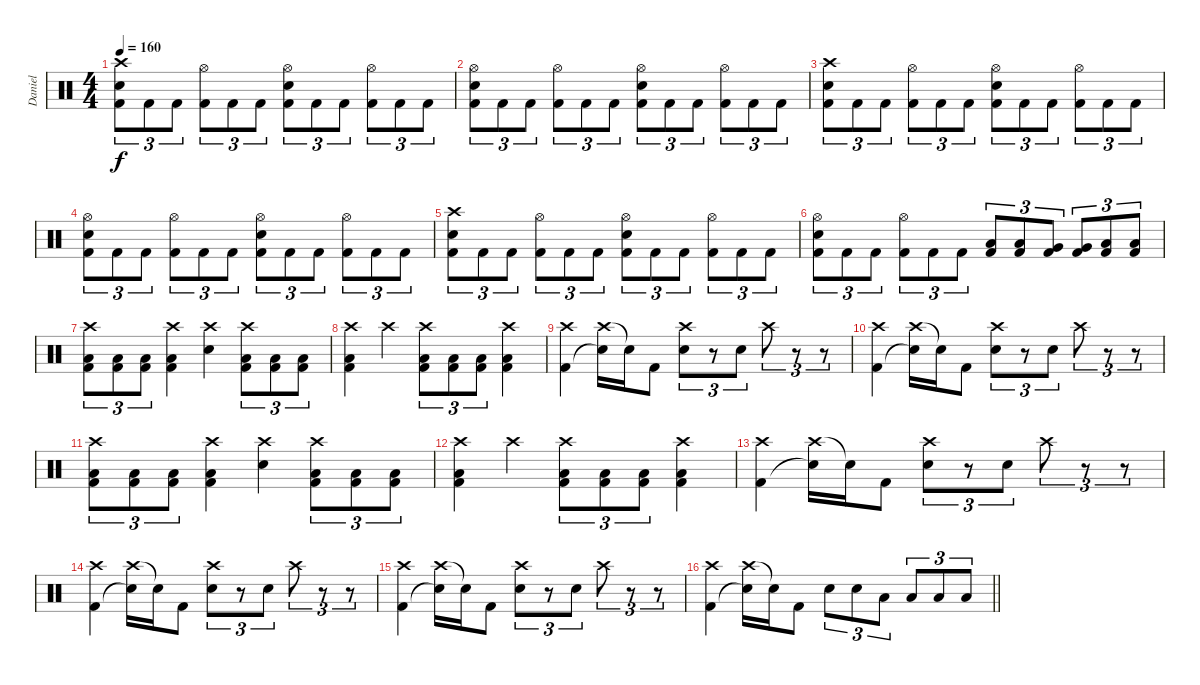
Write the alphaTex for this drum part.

\track ("Daniel" "Daniel") {instrument percussion}
\staff {score}
\articulation defaults
\ts (4 4)
\tempo 160
\clef neutral
\ks c
("Crash high (hit)" "Electric Snare (hit)" "Kick (hit) 2").8{tu (3 2) dy f} "Kick (hit) 2".8{tu (3 2)} "Kick (hit) 2".8{tu (3 2)} ("Hi-Hat (open)" "Kick (hit) 2").8{tu (3 2)} "Kick (hit) 2".8{tu (3 2)} "Kick (hit) 2".8{tu (3 2)} ("Hi-Hat (open)" "Electric Snare (hit)" "Kick (hit) 2").8{tu (3 2)} "Kick (hit) 2".8{tu (3 2)} "Kick (hit) 2".8{tu (3 2)} ("Hi-Hat (open)" "Kick (hit) 2").8{tu (3 2)} "Kick (hit) 2".8{tu (3 2)} "Kick (hit) 2".8{tu (3 2)} |
("Hi-Hat (open)" "Electric Snare (hit)" "Kick (hit) 2").8{tu (3 2)} "Kick (hit) 2".8{tu (3 2)} "Kick (hit) 2".8{tu (3 2)} ("Hi-Hat (open)" "Kick (hit) 2").8{tu (3 2)} "Kick (hit) 2".8{tu (3 2)} "Kick (hit) 2".8{tu (3 2)} ("Hi-Hat (open)" "Electric Snare (hit)" "Kick (hit) 2").8{tu (3 2)} "Kick (hit) 2".8{tu (3 2)} "Kick (hit) 2".8{tu (3 2)} ("Hi-Hat (open)" "Kick (hit) 2").8{tu (3 2)} "Kick (hit) 2".8{tu (3 2)} "Kick (hit) 2".8{tu (3 2)} |
("Crash high (hit)" "Electric Snare (hit)" "Kick (hit) 2").8{tu (3 2)} "Kick (hit) 2".8{tu (3 2)} "Kick (hit) 2".8{tu (3 2)} ("Hi-Hat (open)" "Kick (hit) 2").8{tu (3 2)} "Kick (hit) 2".8{tu (3 2)} "Kick (hit) 2".8{tu (3 2)} ("Hi-Hat (open)" "Electric Snare (hit)" "Kick (hit) 2").8{tu (3 2)} "Kick (hit) 2".8{tu (3 2)} "Kick (hit) 2".8{tu (3 2)} ("Hi-Hat (open)" "Kick (hit) 2").8{tu (3 2)} "Kick (hit) 2".8{tu (3 2)} "Kick (hit) 2".8{tu (3 2)} |
("Hi-Hat (open)" "Electric Snare (hit)" "Kick (hit) 2").8{tu (3 2)} "Kick (hit) 2".8{tu (3 2)} "Kick (hit) 2".8{tu (3 2)} ("Hi-Hat (open)" "Kick (hit) 2").8{tu (3 2)} "Kick (hit) 2".8{tu (3 2)} "Kick (hit) 2".8{tu (3 2)} ("Hi-Hat (open)" "Electric Snare (hit)" "Kick (hit) 2").8{tu (3 2)} "Kick (hit) 2".8{tu (3 2)} "Kick (hit) 2".8{tu (3 2)} ("Hi-Hat (open)" "Kick (hit) 2").8{tu (3 2)} "Kick (hit) 2".8{tu (3 2)} "Kick (hit) 2".8{tu (3 2)} |
("Crash high (hit)" "Electric Snare (hit)" "Kick (hit) 2").8{tu (3 2)} "Kick (hit) 2".8{tu (3 2)} "Kick (hit) 2".8{tu (3 2)} ("Hi-Hat (open)" "Kick (hit) 2").8{tu (3 2)} "Kick (hit) 2".8{tu (3 2)} "Kick (hit) 2".8{tu (3 2)} ("Hi-Hat (open)" "Electric Snare (hit)" "Kick (hit) 2").8{tu (3 2)} "Kick (hit) 2".8{tu (3 2)} "Kick (hit) 2".8{tu (3 2)} ("Hi-Hat (open)" "Kick (hit) 2").8{tu (3 2)} "Kick (hit) 2".8{tu (3 2)} "Kick (hit) 2".8{tu (3 2)} |
("Hi-Hat (open)" "Electric Snare (hit)" "Kick (hit) 2").8{tu (3 2)} "Kick (hit) 2".8{tu (3 2)} "Kick (hit) 2".8{tu (3 2)} ("Hi-Hat (open)" "Kick (hit) 2").8{tu (3 2)} "Kick (hit) 2".8{tu (3 2)} "Kick (hit) 2".8{tu (3 2)} ("Low Tom (hit)" "Kick (hit) 2").8{tu (3 2)} ("Low Tom (hit)" "Kick (hit) 2").8{tu (3 2)} ("Very Low Tom (hit)" "Kick (hit) 2").8{tu (3 2)} ("Very Low Tom (hit)" "Kick (hit) 2").8{tu (3 2)} ("Low Floor Tom (hit)" "Kick (hit) 2").8{tu (3 2)} ("Low Floor Tom (hit)" "Kick (hit) 2").8{tu (3 2)} |
("Crash high (hit)" "Low Floor Tom (hit)" "Kick (hit) 2").8{tu (3 2)} ("Low Floor Tom (hit)" "Kick (hit) 2").8{tu (3 2)} ("Low Floor Tom (hit)" "Kick (hit) 2").8{tu (3 2)} ("Crash high (hit)" "Low Floor Tom (hit)" "Kick (hit) 2").4 ("Crash high (hit)" "Electric Snare (hit)").4 ("Crash high (hit)" "Low Floor Tom (hit)" "Kick (hit) 2").8{tu (3 2)} ("Low Floor Tom (hit)" "Kick (hit) 2").8{tu (3 2)} ("Low Floor Tom (hit)" "Kick (hit) 2").8{tu (3 2)} |
("Crash high (hit)" "Low Floor Tom (hit)" "Kick (hit) 2").4 "Crash high (hit)".4 ("Crash high (hit)" "Low Floor Tom (hit)" "Kick (hit) 2").8{tu (3 2)} ("Low Floor Tom (hit)" "Kick (hit) 2").8{tu (3 2)} ("Low Floor Tom (hit)" "Kick (hit) 2").8{tu (3 2)} ("Crash high (hit)" "Low Floor Tom (hit)" "Kick (hit) 2").4 |
("Crash high (hit)" "Kick (hit) 2").4 ("Crash high (hit)" "Snare (hit)"{t}).16 "Snare (hit)"{t}.16 "Kick (hit) 2".8 ("Crash high (hit)" "Electric Snare (hit)").8{tu (3 2)} r.8{tu (3 2)} "Electric Snare (hit)".8{tu (3 2)} "Crash high (hit)".8{tu (3 2)} r.8{tu (3 2)} r.8{tu (3 2)} |
("Crash high (hit)" "Kick (hit) 2").4 ("Crash high (hit)" "Snare (hit)"{t}).16 "Snare (hit)"{t}.16 "Kick (hit) 2".8 ("Crash high (hit)" "Electric Snare (hit)").8{tu (3 2)} r.8{tu (3 2)} "Electric Snare (hit)".8{tu (3 2)} "Crash high (hit)".8{tu (3 2)} r.8{tu (3 2)} r.8{tu (3 2)} |
("Crash high (hit)" "Low Floor Tom (hit)" "Kick (hit) 2").8{tu (3 2)} ("Low Floor Tom (hit)" "Kick (hit) 2").8{tu (3 2)} ("Low Floor Tom (hit)" "Kick (hit) 2").8{tu (3 2)} ("Crash high (hit)" "Low Floor Tom (hit)" "Kick (hit) 2").4 ("Crash high (hit)" "Electric Snare (hit)").4 ("Crash high (hit)" "Low Floor Tom (hit)" "Kick (hit) 2").8{tu (3 2)} ("Low Floor Tom (hit)" "Kick (hit) 2").8{tu (3 2)} ("Low Floor Tom (hit)" "Kick (hit) 2").8{tu (3 2)} |
("Crash high (hit)" "Low Floor Tom (hit)" "Kick (hit) 2").4 "Crash high (hit)".4 ("Crash high (hit)" "Low Floor Tom (hit)" "Kick (hit) 2").8{tu (3 2)} ("Low Floor Tom (hit)" "Kick (hit) 2").8{tu (3 2)} ("Low Floor Tom (hit)" "Kick (hit) 2").8{tu (3 2)} ("Crash high (hit)" "Low Floor Tom (hit)" "Kick (hit) 2").4 |
("Crash high (hit)" "Kick (hit) 2").4 ("Crash high (hit)" "Snare (hit)"{t}).16 "Snare (hit)"{t}.16 "Kick (hit) 2".8 ("Crash high (hit)" "Electric Snare (hit)").8{tu (3 2)} r.8{tu (3 2)} "Electric Snare (hit)".8{tu (3 2)} "Crash high (hit)".8{tu (3 2)} r.8{tu (3 2)} r.8{tu (3 2)} |
("Crash high (hit)" "Kick (hit) 2").4 ("Crash high (hit)" "Snare (hit)"{t}).16 "Snare (hit)"{t}.16 "Kick (hit) 2".8 ("Crash high (hit)" "Electric Snare (hit)").8{tu (3 2)} r.8{tu (3 2)} "Electric Snare (hit)".8{tu (3 2)} "Crash high (hit)".8{tu (3 2)} r.8{tu (3 2)} r.8{tu (3 2)} |
("Crash high (hit)" "Kick (hit) 2").4 ("Crash high (hit)" "Snare (hit)"{t}).16 "Snare (hit)"{t}.16 "Kick (hit) 2".8 ("Crash high (hit)" "Electric Snare (hit)").8{tu (3 2)} r.8{tu (3 2)} "Electric Snare (hit)".8{tu (3 2)} "Crash high (hit)".8{tu (3 2)} r.8{tu (3 2)} r.8{tu (3 2)} |
\barLineRight lightlight
("Crash high (hit)" "Kick (hit) 2").4 ("Crash high (hit)" "Snare (hit)"{t}).16 "Snare (hit)"{t}.16 "Kick (hit) 2".8 "Electric Snare (hit)".8{tu (3 2)} "Electric Snare (hit)".8{tu (3 2)} "Low Tom (hit)".8{tu (3 2)} "Low Tom (hit)".8{tu (3 2)} "Low Floor Tom (hit)".8{tu (3 2)} "Low Floor Tom (hit)".8{tu (3 2)}
